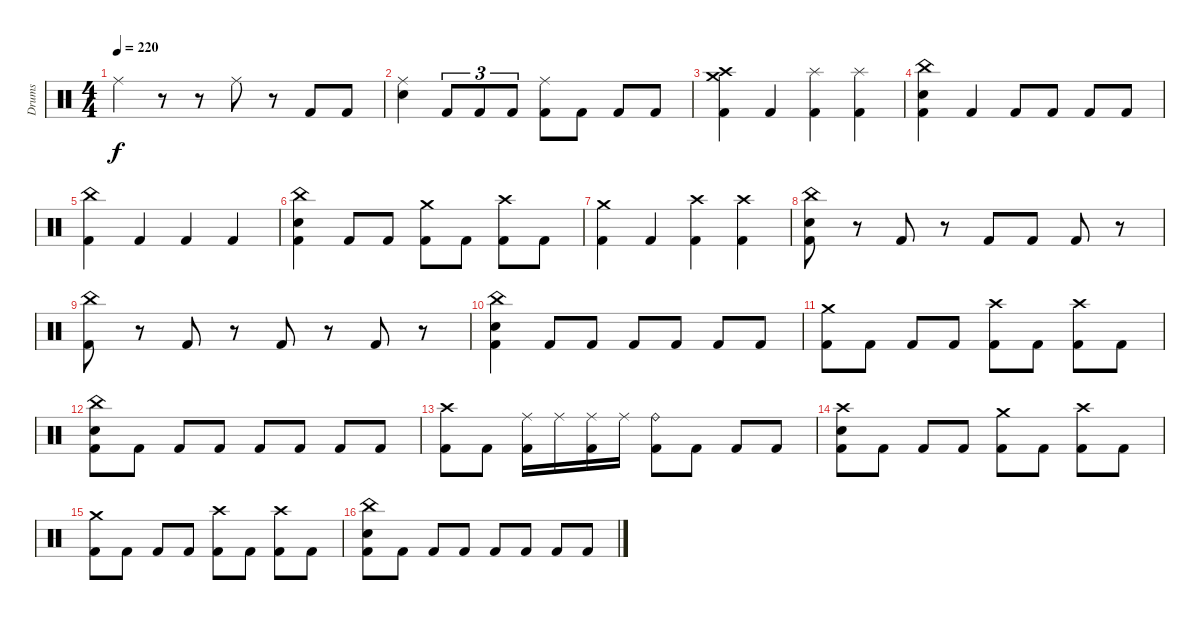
\track ("Drums" "Drums") {instrument percussion}
\staff {score}
\articulation defaults
\ts (4 4)
\tempo 220
\clef neutral
\ks c "Ride (middle)".4{dy f}
r.8 r.8 "Ride (middle)".8 r.8 "Kick (hit) 2".8 "Kick (hit) 2".8 |
("Ride (middle)" "Electric Snare (hit)").4 "Kick (hit) 2".8{tu (3 2)} "Kick (hit) 2".8{tu (3 2)} "Kick (hit) 2".8{tu (3 2)} ("Ride (middle)" "Kick (hit) 2").8 "Kick (hit) 2".8 "Kick (hit) 2".8 "Kick (hit) 2".8 |
("Crash medium (hit)" "Crash high (hit)" "Kick (hit) 2").4 "Kick (hit) 2".4 ("Splash (hit)" "Kick (hit) 2").4 ("Splash (hit)" "Kick (hit) 2").4 |
("China (hit)" "Electric Snare (hit)" "Kick (hit) 2").4 "Kick (hit) 2".4 "Kick (hit) 2".8 "Kick (hit) 2".8 "Kick (hit) 2".8 "Kick (hit) 2".8 |
("China (hit)" "Kick (hit) 2").4 "Kick (hit) 2".4 "Kick (hit) 2".4 "Kick (hit) 2".4 |
("China (hit)" "Electric Snare (hit)" "Kick (hit) 2").4 "Kick (hit) 2".8 "Kick (hit) 2".8 ("Crash medium (hit)" "Kick (hit) 2").8 "Kick (hit) 2".8 ("Crash high (hit)" "Kick (hit) 2").8 "Kick (hit) 2".8 |
("Crash medium (hit)" "Kick (hit) 2").4 "Kick (hit) 2".4 ("Crash high (hit)" "Kick (hit) 2").4 ("Crash high (hit)" "Kick (hit) 2").4 |
("China (hit)" "Electric Snare (hit)" "Kick (hit) 2").8 r.8 "Kick (hit) 2".8 r.8 "Kick (hit) 2".8 "Kick (hit) 2".8 "Kick (hit) 2".8 r.8 |
("China (hit)" "Kick (hit) 2").8 r.8 "Kick (hit) 2".8 r.8 "Kick (hit) 2".8 r.8 "Kick (hit) 2".8 r.8 |
("China (hit)" "Electric Snare (hit)" "Kick (hit) 2").4 "Kick (hit) 2".8 "Kick (hit) 2".8 "Kick (hit) 2".8 "Kick (hit) 2".8 "Kick (hit) 2".8 "Kick (hit) 2".8 |
("Crash medium (hit)" "Kick (hit) 2").8 "Kick (hit) 2".8 "Kick (hit) 2".8 "Kick (hit) 2".8 ("Crash high (hit)" "Kick (hit) 2").8 "Kick (hit) 2".8 ("Crash high (hit)" "Kick (hit) 2").8 "Kick (hit) 2".8 |
("China (hit)" "Electric Snare (hit)" "Kick (hit) 2").8 "Kick (hit) 2".8 "Kick (hit) 2".8 "Kick (hit) 2".8 "Kick (hit) 2".8 "Kick (hit) 2".8 "Kick (hit) 2".8 "Kick (hit) 2".8 |
("Crash high (hit)" "Kick (hit) 2").8 "Kick (hit) 2".8 ("Ride (middle)" "Kick (hit) 2").16 "Ride (middle)".16 ("Ride (middle)" "Kick (hit) 2").16 "Ride (middle)".16 ("Ride (bell)" "Kick (hit) 2").8 "Kick (hit) 2".8 "Kick (hit) 2".8 "Kick (hit) 2".8 |
("Crash high (hit)" "Electric Snare (hit)" "Kick (hit) 2").8 "Kick (hit) 2".8 "Kick (hit) 2".8 "Kick (hit) 2".8 ("Crash medium (hit)" "Kick (hit) 2").8 "Kick (hit) 2".8 ("Crash high (hit)" "Kick (hit) 2").8 "Kick (hit) 2".8 |
("Crash medium (hit)" "Kick (hit) 2").8 "Kick (hit) 2".8 "Kick (hit) 2".8 "Kick (hit) 2".8 ("Crash high (hit)" "Kick (hit) 2").8 "Kick (hit) 2".8 ("Crash high (hit)" "Kick (hit) 2").8 "Kick (hit) 2".8 |
("China (hit)" "Electric Snare (hit)" "Kick (hit) 2").8 "Kick (hit) 2".8 "Kick (hit) 2".8 "Kick (hit) 2".8 "Kick (hit) 2".8 "Kick (hit) 2".8 "Kick (hit) 2".8 "Kick (hit) 2".8
